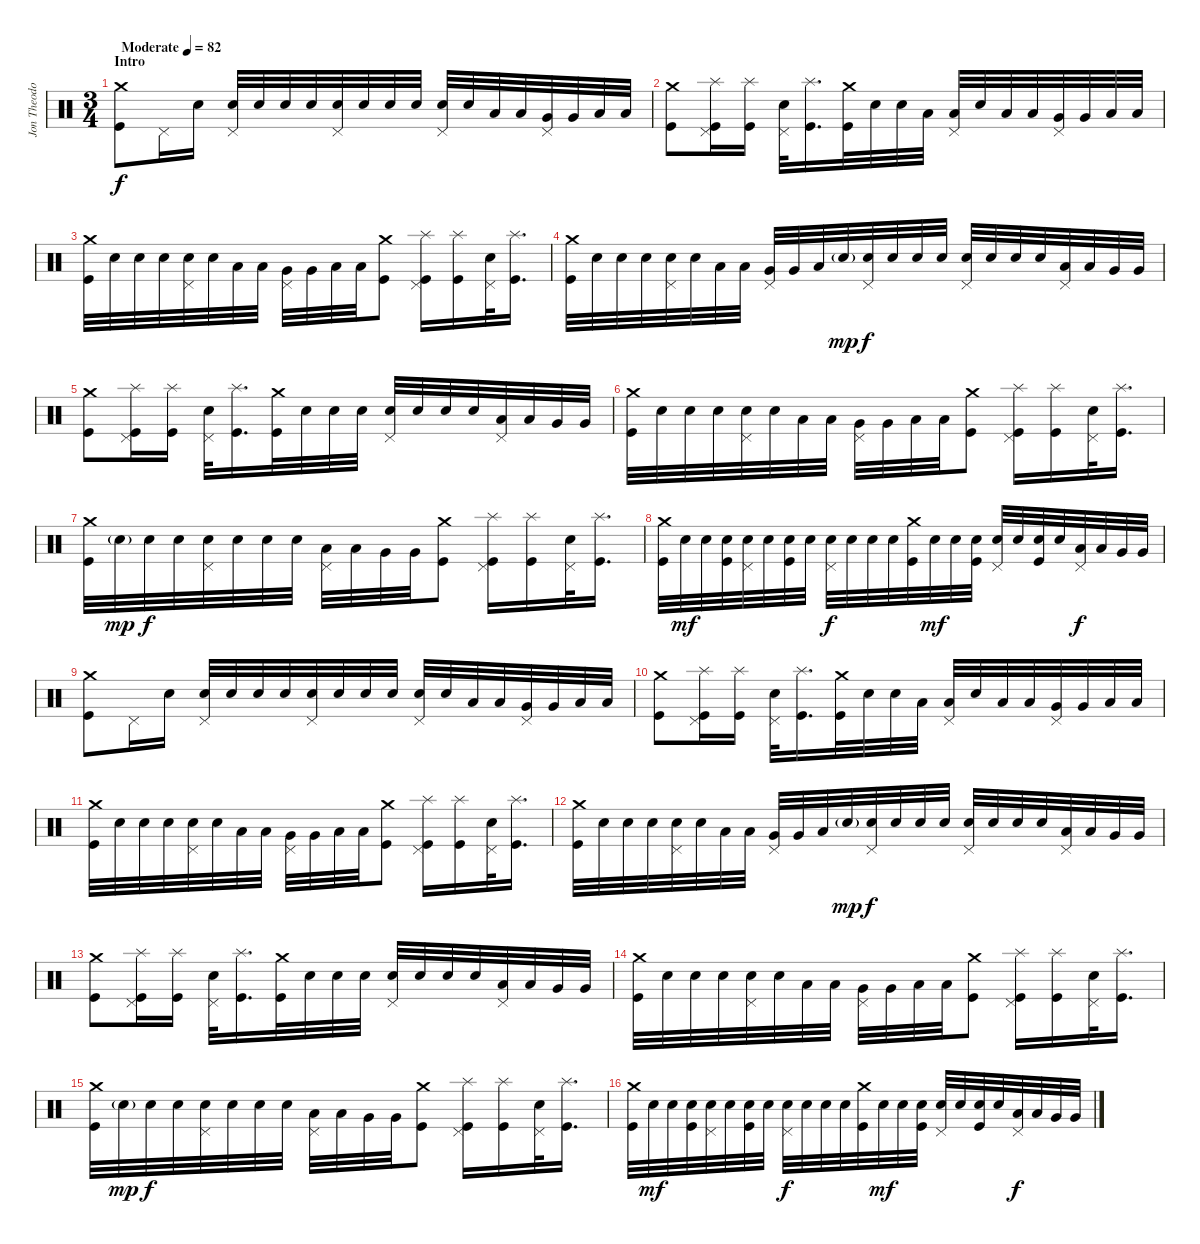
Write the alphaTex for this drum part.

\track ("Jon Theodore" "Jon Theodo") {instrument percussion}
\staff {score}
\articulation defaults
\ts (3 4)
\section ("" "Intro")
\tempo (82 "Moderate")
\clef neutral
\ks c
("Crash medium (hit)" "Kick (hit)").8{dy f} "Pedal Hi-Hat (hit)".16 "Snare (hit) 2".16 ("Pedal Hi-Hat (hit)" "Snare (hit) 2").32 "Snare (hit) 2".32 "Snare (hit) 2".32 "Snare (hit) 2".32 ("Pedal Hi-Hat (hit)" "Snare (hit) 2").32 "Snare (hit) 2".32 "Snare (hit) 2".32 "Snare (hit) 2".32 ("Pedal Hi-Hat (hit)" "Snare (hit) 2").32 "Snare (hit) 2".32 "Low Tom (hit)".32 "Low Tom (hit)".32 ("Pedal Hi-Hat (hit)" "Very Low Tom (hit)").32 "Very Low Tom (hit)".32 "Low Floor Tom (hit)".32 "Low Floor Tom (hit)".32 |
("Crash medium (hit)" "Kick (hit)").8 ("Splash (hit)" "Pedal Hi-Hat (hit)" "Kick (hit)").16 ("Splash (hit)" "Kick (hit)").16 ("Pedal Hi-Hat (hit)" "Snare (hit) 2").32 ("Splash (hit)" "Kick (hit)").16{d} ("Crash medium (hit)" "Kick (hit)").32 "Snare (hit) 2".32 "Snare (hit) 2".32 "Low Tom (hit)".32 ("Pedal Hi-Hat (hit)" "Low Tom (hit)").32 "Snare (hit) 2".32 "Low Tom (hit)".32 "Low Tom (hit)".32 ("Pedal Hi-Hat (hit)" "Very Low Tom (hit)").32 "Very Low Tom (hit)".32 "Low Floor Tom (hit)".32 "Low Floor Tom (hit)".32 |
("Crash medium (hit)" "Kick (hit)").32 "Snare (hit) 2".32 "Snare (hit) 2".32 "Snare (hit) 2".32 ("Pedal Hi-Hat (hit)" "Snare (hit) 2").32 "Snare (hit) 2".32 "Low Tom (hit)".32 "Low Tom (hit)".32 ("Pedal Hi-Hat (hit)" "Very Low Tom (hit)").32 "Very Low Tom (hit)".32 "Low Floor Tom (hit)".32 "Low Floor Tom (hit)".32 ("Crash medium (hit)" "Kick (hit)").8 ("Splash (hit)" "Pedal Hi-Hat (hit)" "Kick (hit)").16 ("Splash (hit)" "Kick (hit)").16 ("Pedal Hi-Hat (hit)" "Snare (hit) 2").32 ("Splash (hit)" "Kick (hit)").16{d} |
("Crash medium (hit)" "Kick (hit)").32 "Snare (hit) 2".32 "Snare (hit) 2".32 "Snare (hit) 2".32 ("Pedal Hi-Hat (hit)" "Snare (hit) 2").32 "Snare (hit) 2".32 "Low Tom (hit)".32 "Low Tom (hit)".32 ("Pedal Hi-Hat (hit)" "Very Low Tom (hit)").32 "Very Low Tom (hit)".32 "Low Floor Tom (hit)".32 "Snare (hit) 2"{g}.32{dy mp} ("Pedal Hi-Hat (hit)" "Snare (hit) 2").32{dy f} "Snare (hit) 2".32 "Snare (hit) 2".32 "Snare (hit) 2".32 ("Pedal Hi-Hat (hit)" "Snare (hit) 2").32 "Snare (hit) 2".32 "Snare (hit) 2".32 "Snare (hit) 2".32 ("Pedal Hi-Hat (hit)" "Low Tom (hit)").32 "Low Tom (hit)".32 "Very Low Tom (hit)".32 "Very Low Tom (hit)".32 |
("Crash medium (hit)" "Kick (hit)").8 ("Splash (hit)" "Pedal Hi-Hat (hit)" "Kick (hit)").16 ("Splash (hit)" "Kick (hit)").16 ("Pedal Hi-Hat (hit)" "Snare (hit) 2").32 ("Splash (hit)" "Kick (hit)").16{d} ("Crash medium (hit)" "Kick (hit)").32 "Snare (hit) 2".32 "Snare (hit) 2".32 "Snare (hit) 2".32 ("Pedal Hi-Hat (hit)" "Snare (hit) 2").32 "Snare (hit) 2".32 "Snare (hit) 2".32 "Snare (hit) 2".32 ("Pedal Hi-Hat (hit)" "Low Tom (hit)").32 "Low Tom (hit)".32 "Very Low Tom (hit)".32 "Very Low Tom (hit)".32 |
("Crash medium (hit)" "Kick (hit)").32 "Snare (hit) 2".32 "Snare (hit) 2".32 "Snare (hit) 2".32 ("Pedal Hi-Hat (hit)" "Snare (hit) 2").32 "Snare (hit) 2".32 "Low Tom (hit)".32 "Low Tom (hit)".32 ("Pedal Hi-Hat (hit)" "Very Low Tom (hit)").32 "Very Low Tom (hit)".32 "Low Floor Tom (hit)".32 "Low Floor Tom (hit)".32 ("Crash medium (hit)" "Kick (hit)").8 ("Splash (hit)" "Pedal Hi-Hat (hit)" "Kick (hit)").16 ("Splash (hit)" "Kick (hit)").16 ("Pedal Hi-Hat (hit)" "Snare (hit) 2").32 ("Splash (hit)" "Kick (hit)").16{d} |
("Crash medium (hit)" "Kick (hit)").32 "Snare (hit) 2"{g}.32{dy mp} "Snare (hit) 2".32{dy f} "Snare (hit) 2".32 ("Pedal Hi-Hat (hit)" "Snare (hit) 2").32 "Snare (hit) 2".32 "Snare (hit) 2".32 "Snare (hit) 2".32 ("Pedal Hi-Hat (hit)" "Low Tom (hit)").32 "Low Tom (hit)".32 "Very Low Tom (hit)".32 "Very Low Tom (hit)".32 ("Crash medium (hit)" "Kick (hit)").8 ("Splash (hit)" "Pedal Hi-Hat (hit)" "Kick (hit)").16 ("Splash (hit)" "Kick (hit)").16 ("Pedal Hi-Hat (hit)" "Snare (hit) 2").32 ("Splash (hit)" "Kick (hit)").16{d} |
("Crash medium (hit)" "Kick (hit)").32 "Snare (hit) 2".32{dy mf} "Snare (hit) 2".32 ("Snare (hit) 2" "Kick (hit)").32 ("Pedal Hi-Hat (hit)" "Snare (hit) 2").32 "Snare (hit) 2".32 ("Snare (hit) 2" "Kick (hit)").32 "Snare (hit) 2".32 ("Pedal Hi-Hat (hit)" "Snare (hit) 2").32{dy f} "Snare (hit) 2".32 "Snare (hit) 2".32 "Snare (hit) 2".32 ("Crash medium (hit)" "Kick (hit)").32 "Snare (hit) 2".32{dy mf} "Snare (hit) 2".32 ("Snare (hit) 2" "Kick (hit)").32 ("Pedal Hi-Hat (hit)" "Snare (hit) 2").32 "Snare (hit) 2".32 ("Snare (hit) 2" "Kick (hit)").32 "Snare (hit) 2".32 ("Pedal Hi-Hat (hit)" "Low Tom (hit)").32{dy f} "Low Tom (hit)".32 "Very Low Tom (hit)".32 "Very Low Tom (hit)".32 |
("Crash medium (hit)" "Kick (hit)").8 "Pedal Hi-Hat (hit)".16 "Snare (hit) 2".16 ("Pedal Hi-Hat (hit)" "Snare (hit) 2").32 "Snare (hit) 2".32 "Snare (hit) 2".32 "Snare (hit) 2".32 ("Pedal Hi-Hat (hit)" "Snare (hit) 2").32 "Snare (hit) 2".32 "Snare (hit) 2".32 "Snare (hit) 2".32 ("Pedal Hi-Hat (hit)" "Snare (hit) 2").32 "Snare (hit) 2".32 "Low Tom (hit)".32 "Low Tom (hit)".32 ("Pedal Hi-Hat (hit)" "Very Low Tom (hit)").32 "Very Low Tom (hit)".32 "Low Floor Tom (hit)".32 "Low Floor Tom (hit)".32 |
("Crash medium (hit)" "Kick (hit)").8 ("Splash (hit)" "Pedal Hi-Hat (hit)" "Kick (hit)").16 ("Splash (hit)" "Kick (hit)").16 ("Pedal Hi-Hat (hit)" "Snare (hit) 2").32 ("Splash (hit)" "Kick (hit)").16{d} ("Crash medium (hit)" "Kick (hit)").32 "Snare (hit) 2".32 "Snare (hit) 2".32 "Low Tom (hit)".32 ("Pedal Hi-Hat (hit)" "Low Tom (hit)").32 "Snare (hit) 2".32 "Low Tom (hit)".32 "Low Tom (hit)".32 ("Pedal Hi-Hat (hit)" "Very Low Tom (hit)").32 "Very Low Tom (hit)".32 "Low Floor Tom (hit)".32 "Low Floor Tom (hit)".32 |
("Crash medium (hit)" "Kick (hit)").32 "Snare (hit) 2".32 "Snare (hit) 2".32 "Snare (hit) 2".32 ("Pedal Hi-Hat (hit)" "Snare (hit) 2").32 "Snare (hit) 2".32 "Low Tom (hit)".32 "Low Tom (hit)".32 ("Pedal Hi-Hat (hit)" "Very Low Tom (hit)").32 "Very Low Tom (hit)".32 "Low Floor Tom (hit)".32 "Low Floor Tom (hit)".32 ("Crash medium (hit)" "Kick (hit)").8 ("Splash (hit)" "Pedal Hi-Hat (hit)" "Kick (hit)").16 ("Splash (hit)" "Kick (hit)").16 ("Pedal Hi-Hat (hit)" "Snare (hit) 2").32 ("Splash (hit)" "Kick (hit)").16{d} |
("Crash medium (hit)" "Kick (hit)").32 "Snare (hit) 2".32 "Snare (hit) 2".32 "Snare (hit) 2".32 ("Pedal Hi-Hat (hit)" "Snare (hit) 2").32 "Snare (hit) 2".32 "Low Tom (hit)".32 "Low Tom (hit)".32 ("Pedal Hi-Hat (hit)" "Very Low Tom (hit)").32 "Very Low Tom (hit)".32 "Low Floor Tom (hit)".32 "Snare (hit) 2"{g}.32{dy mp} ("Pedal Hi-Hat (hit)" "Snare (hit) 2").32{dy f} "Snare (hit) 2".32 "Snare (hit) 2".32 "Snare (hit) 2".32 ("Pedal Hi-Hat (hit)" "Snare (hit) 2").32 "Snare (hit) 2".32 "Snare (hit) 2".32 "Snare (hit) 2".32 ("Pedal Hi-Hat (hit)" "Low Tom (hit)").32 "Low Tom (hit)".32 "Very Low Tom (hit)".32 "Very Low Tom (hit)".32 |
("Crash medium (hit)" "Kick (hit)").8 ("Splash (hit)" "Pedal Hi-Hat (hit)" "Kick (hit)").16 ("Splash (hit)" "Kick (hit)").16 ("Pedal Hi-Hat (hit)" "Snare (hit) 2").32 ("Splash (hit)" "Kick (hit)").16{d} ("Crash medium (hit)" "Kick (hit)").32 "Snare (hit) 2".32 "Snare (hit) 2".32 "Snare (hit) 2".32 ("Pedal Hi-Hat (hit)" "Snare (hit) 2").32 "Snare (hit) 2".32 "Snare (hit) 2".32 "Snare (hit) 2".32 ("Pedal Hi-Hat (hit)" "Low Tom (hit)").32 "Low Tom (hit)".32 "Very Low Tom (hit)".32 "Very Low Tom (hit)".32 |
("Crash medium (hit)" "Kick (hit)").32 "Snare (hit) 2".32 "Snare (hit) 2".32 "Snare (hit) 2".32 ("Pedal Hi-Hat (hit)" "Snare (hit) 2").32 "Snare (hit) 2".32 "Low Tom (hit)".32 "Low Tom (hit)".32 ("Pedal Hi-Hat (hit)" "Very Low Tom (hit)").32 "Very Low Tom (hit)".32 "Low Floor Tom (hit)".32 "Low Floor Tom (hit)".32 ("Crash medium (hit)" "Kick (hit)").8 ("Splash (hit)" "Pedal Hi-Hat (hit)" "Kick (hit)").16 ("Splash (hit)" "Kick (hit)").16 ("Pedal Hi-Hat (hit)" "Snare (hit) 2").32 ("Splash (hit)" "Kick (hit)").16{d} |
("Crash medium (hit)" "Kick (hit)").32 "Snare (hit) 2"{g}.32{dy mp} "Snare (hit) 2".32{dy f} "Snare (hit) 2".32 ("Pedal Hi-Hat (hit)" "Snare (hit) 2").32 "Snare (hit) 2".32 "Snare (hit) 2".32 "Snare (hit) 2".32 ("Pedal Hi-Hat (hit)" "Low Tom (hit)").32 "Low Tom (hit)".32 "Very Low Tom (hit)".32 "Very Low Tom (hit)".32 ("Crash medium (hit)" "Kick (hit)").8 ("Splash (hit)" "Pedal Hi-Hat (hit)" "Kick (hit)").16 ("Splash (hit)" "Kick (hit)").16 ("Pedal Hi-Hat (hit)" "Snare (hit) 2").32 ("Splash (hit)" "Kick (hit)").16{d} |
("Crash medium (hit)" "Kick (hit)").32 "Snare (hit) 2".32{dy mf} "Snare (hit) 2".32 ("Snare (hit) 2" "Kick (hit)").32 ("Pedal Hi-Hat (hit)" "Snare (hit) 2").32 "Snare (hit) 2".32 ("Snare (hit) 2" "Kick (hit)").32 "Snare (hit) 2".32 ("Pedal Hi-Hat (hit)" "Snare (hit) 2").32{dy f} "Snare (hit) 2".32 "Snare (hit) 2".32 "Snare (hit) 2".32 ("Crash medium (hit)" "Kick (hit)").32 "Snare (hit) 2".32{dy mf} "Snare (hit) 2".32 ("Snare (hit) 2" "Kick (hit)").32 ("Pedal Hi-Hat (hit)" "Snare (hit) 2").32 "Snare (hit) 2".32 ("Snare (hit) 2" "Kick (hit)").32 "Snare (hit) 2".32 ("Pedal Hi-Hat (hit)" "Low Tom (hit)").32{dy f} "Low Tom (hit)".32 "Very Low Tom (hit)".32 "Very Low Tom (hit)".32
